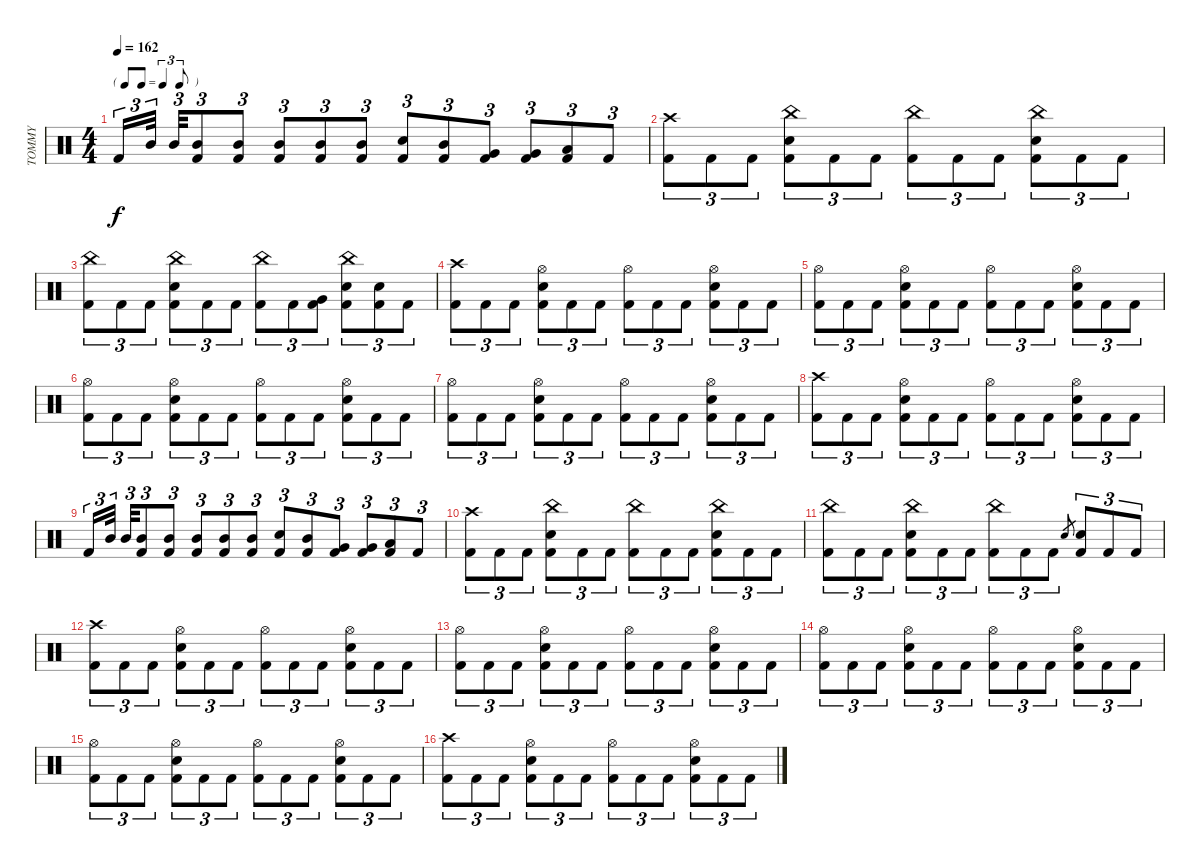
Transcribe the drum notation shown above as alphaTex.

\track ("TOMMY" "TOMMY") {instrument percussion}
\staff {score}
\articulation defaults
\ts (4 4)
\tf triplet8th
\tempo 162
\clef neutral
\ks c "Kick (hit) 2".16{tu (3 2) dy f} "Mid Tom (hit)".32{tu (3 2)} "Mid Tom (hit)".32{tu (3 2)}
("Kick (hit) 2" "Mid Tom (hit)").8{tu (3 2)} ("Kick (hit) 2" "Mid Tom (hit)").8{tu (3 2)} ("Kick (hit) 2" "Mid Tom (hit)").8{tu (3 2)} ("Kick (hit) 2" "Mid Tom (hit)").8{tu (3 2)} ("Kick (hit) 2" "Mid Tom (hit)").8{tu (3 2)} ("Snare (hit) 2" "Kick (hit) 2").8{tu (3 2)} ("Kick (hit) 2" "Mid Tom (hit)").8{tu (3 2)} ("Kick (hit) 2" "Very Low Tom (hit)").8{tu (3 2)} ("Kick (hit) 2" "Very Low Tom (hit)").8{tu (3 2)} ("Kick (hit) 2" "Low Floor Tom (hit)").8{tu (3 2)} "Kick (hit) 2".8{tu (3 2)} |
("Kick (hit) 2" "Crash high (hit)").8{tu (3 2)} "Kick (hit) 2".8{tu (3 2)} "Kick (hit) 2".8{tu (3 2)} ("Snare (hit) 2" "Kick (hit) 2" "China (hit)").8{tu (3 2)} "Kick (hit) 2".8{tu (3 2)} "Kick (hit) 2".8{tu (3 2)} ("Kick (hit) 2" "China (hit)").8{tu (3 2)} "Kick (hit) 2".8{tu (3 2)} "Kick (hit) 2".8{tu (3 2)} ("Snare (hit) 2" "Kick (hit) 2" "China (hit)").8{tu (3 2)} "Kick (hit) 2".8{tu (3 2)} "Kick (hit) 2".8{tu (3 2)} |
("Kick (hit) 2" "China (hit)").8{tu (3 2)} "Kick (hit) 2".8{tu (3 2)} "Kick (hit) 2".8{tu (3 2)} ("Snare (hit) 2" "Kick (hit) 2" "China (hit)").8{tu (3 2)} "Kick (hit) 2".8{tu (3 2)} "Kick (hit) 2".8{tu (3 2)} ("Kick (hit) 2" "China (hit)").8{tu (3 2)} "Kick (hit) 2".8{tu (3 2)} ("Kick (hit) 2" "Very Low Tom (hit)").8{tu (3 2)} ("Snare (hit) 2" "Kick (hit) 2" "China (hit)").8{tu (3 2)} ("Snare (hit) 2" "Kick (hit) 2").8{tu (3 2)} "Kick (hit) 2".8{tu (3 2)} |
("Kick (hit) 2" "Crash high (hit)").8{tu (3 2)} "Kick (hit) 2".8{tu (3 2)} "Kick (hit) 2".8{tu (3 2)} ("Snare (hit) 2" "Kick (hit) 2" "Hi-Hat (open)").8{tu (3 2)} "Kick (hit) 2".8{tu (3 2)} "Kick (hit) 2".8{tu (3 2)} ("Kick (hit) 2" "Hi-Hat (open)").8{tu (3 2)} "Kick (hit) 2".8{tu (3 2)} "Kick (hit) 2".8{tu (3 2)} ("Snare (hit) 2" "Kick (hit) 2" "Hi-Hat (open)").8{tu (3 2)} "Kick (hit) 2".8{tu (3 2)} "Kick (hit) 2".8{tu (3 2)} |
("Kick (hit) 2" "Hi-Hat (open)").8{tu (3 2)} "Kick (hit) 2".8{tu (3 2)} "Kick (hit) 2".8{tu (3 2)} ("Snare (hit) 2" "Kick (hit) 2" "Hi-Hat (open)").8{tu (3 2)} "Kick (hit) 2".8{tu (3 2)} "Kick (hit) 2".8{tu (3 2)} ("Kick (hit) 2" "Hi-Hat (open)").8{tu (3 2)} "Kick (hit) 2".8{tu (3 2)} "Kick (hit) 2".8{tu (3 2)} ("Snare (hit) 2" "Kick (hit) 2" "Hi-Hat (open)").8{tu (3 2)} "Kick (hit) 2".8{tu (3 2)} "Kick (hit) 2".8{tu (3 2)} |
("Kick (hit) 2" "Hi-Hat (open)").8{tu (3 2)} "Kick (hit) 2".8{tu (3 2)} "Kick (hit) 2".8{tu (3 2)} ("Snare (hit) 2" "Kick (hit) 2" "Hi-Hat (open)").8{tu (3 2)} "Kick (hit) 2".8{tu (3 2)} "Kick (hit) 2".8{tu (3 2)} ("Kick (hit) 2" "Hi-Hat (open)").8{tu (3 2)} "Kick (hit) 2".8{tu (3 2)} "Kick (hit) 2".8{tu (3 2)} ("Snare (hit) 2" "Kick (hit) 2" "Hi-Hat (open)").8{tu (3 2)} "Kick (hit) 2".8{tu (3 2)} "Kick (hit) 2".8{tu (3 2)} |
("Kick (hit) 2" "Hi-Hat (open)").8{tu (3 2)} "Kick (hit) 2".8{tu (3 2)} "Kick (hit) 2".8{tu (3 2)} ("Snare (hit) 2" "Kick (hit) 2" "Hi-Hat (open)").8{tu (3 2)} "Kick (hit) 2".8{tu (3 2)} "Kick (hit) 2".8{tu (3 2)} ("Kick (hit) 2" "Hi-Hat (open)").8{tu (3 2)} "Kick (hit) 2".8{tu (3 2)} "Kick (hit) 2".8{tu (3 2)} ("Snare (hit) 2" "Kick (hit) 2" "Hi-Hat (open)").8{tu (3 2)} "Kick (hit) 2".8{tu (3 2)} "Kick (hit) 2".8{tu (3 2)} |
("Kick (hit) 2" "Crash high (hit)").8{tu (3 2)} "Kick (hit) 2".8{tu (3 2)} "Kick (hit) 2".8{tu (3 2)} ("Snare (hit) 2" "Kick (hit) 2" "Hi-Hat (open)").8{tu (3 2)} "Kick (hit) 2".8{tu (3 2)} "Kick (hit) 2".8{tu (3 2)} ("Kick (hit) 2" "Hi-Hat (open)").8{tu (3 2)} "Kick (hit) 2".8{tu (3 2)} "Kick (hit) 2".8{tu (3 2)} ("Snare (hit) 2" "Kick (hit) 2" "Hi-Hat (open)").8{tu (3 2)} "Kick (hit) 2".8{tu (3 2)} "Kick (hit) 2".8{tu (3 2)} |
"Kick (hit) 2".16{tu (3 2)} "Mid Tom (hit)".32{tu (3 2)} "Mid Tom (hit)".32{tu (3 2)} ("Kick (hit) 2" "Mid Tom (hit)").8{tu (3 2)} ("Kick (hit) 2" "Mid Tom (hit)").8{tu (3 2)} ("Kick (hit) 2" "Mid Tom (hit)").8{tu (3 2)} ("Kick (hit) 2" "Mid Tom (hit)").8{tu (3 2)} ("Kick (hit) 2" "Mid Tom (hit)").8{tu (3 2)} ("Snare (hit) 2" "Kick (hit) 2").8{tu (3 2)} ("Kick (hit) 2" "Mid Tom (hit)").8{tu (3 2)} ("Kick (hit) 2" "Very Low Tom (hit)").8{tu (3 2)} ("Kick (hit) 2" "Very Low Tom (hit)").8{tu (3 2)} ("Kick (hit) 2" "Low Floor Tom (hit)").8{tu (3 2)} "Kick (hit) 2".8{tu (3 2)} |
("Kick (hit) 2" "Crash high (hit)").8{tu (3 2)} "Kick (hit) 2".8{tu (3 2)} "Kick (hit) 2".8{tu (3 2)} ("Snare (hit) 2" "Kick (hit) 2" "China (hit)").8{tu (3 2)} "Kick (hit) 2".8{tu (3 2)} "Kick (hit) 2".8{tu (3 2)} ("Kick (hit) 2" "China (hit)").8{tu (3 2)} "Kick (hit) 2".8{tu (3 2)} "Kick (hit) 2".8{tu (3 2)} ("Snare (hit) 2" "Kick (hit) 2" "China (hit)").8{tu (3 2)} "Kick (hit) 2".8{tu (3 2)} "Kick (hit) 2".8{tu (3 2)} |
("Kick (hit) 2" "China (hit)").8{tu (3 2)} "Kick (hit) 2".8{tu (3 2)} "Kick (hit) 2".8{tu (3 2)} ("Snare (hit) 2" "Kick (hit) 2" "China (hit)").8{tu (3 2)} "Kick (hit) 2".8{tu (3 2)} "Kick (hit) 2".8{tu (3 2)} ("Kick (hit) 2" "China (hit)").8{tu (3 2)} "Kick (hit) 2".8{tu (3 2)} "Kick (hit) 2".8{tu (3 2)} "Snare (hit) 2".8{gr} ("Snare (hit) 2" "Kick (hit) 2").8{tu (3 2)} "Kick (hit) 2".8{tu (3 2)} "Kick (hit) 2".8{tu (3 2)} |
("Kick (hit) 2" "Crash high (hit)").8{tu (3 2)} "Kick (hit) 2".8{tu (3 2)} "Kick (hit) 2".8{tu (3 2)} ("Snare (hit) 2" "Kick (hit) 2" "Hi-Hat (open)").8{tu (3 2)} "Kick (hit) 2".8{tu (3 2)} "Kick (hit) 2".8{tu (3 2)} ("Kick (hit) 2" "Hi-Hat (open)").8{tu (3 2)} "Kick (hit) 2".8{tu (3 2)} "Kick (hit) 2".8{tu (3 2)} ("Snare (hit) 2" "Kick (hit) 2" "Hi-Hat (open)").8{tu (3 2)} "Kick (hit) 2".8{tu (3 2)} "Kick (hit) 2".8{tu (3 2)} |
("Kick (hit) 2" "Hi-Hat (open)").8{tu (3 2)} "Kick (hit) 2".8{tu (3 2)} "Kick (hit) 2".8{tu (3 2)} ("Snare (hit) 2" "Kick (hit) 2" "Hi-Hat (open)").8{tu (3 2)} "Kick (hit) 2".8{tu (3 2)} "Kick (hit) 2".8{tu (3 2)} ("Kick (hit) 2" "Hi-Hat (open)").8{tu (3 2)} "Kick (hit) 2".8{tu (3 2)} "Kick (hit) 2".8{tu (3 2)} ("Snare (hit) 2" "Kick (hit) 2" "Hi-Hat (open)").8{tu (3 2)} "Kick (hit) 2".8{tu (3 2)} "Kick (hit) 2".8{tu (3 2)} |
("Kick (hit) 2" "Hi-Hat (open)").8{tu (3 2)} "Kick (hit) 2".8{tu (3 2)} "Kick (hit) 2".8{tu (3 2)} ("Snare (hit) 2" "Kick (hit) 2" "Hi-Hat (open)").8{tu (3 2)} "Kick (hit) 2".8{tu (3 2)} "Kick (hit) 2".8{tu (3 2)} ("Kick (hit) 2" "Hi-Hat (open)").8{tu (3 2)} "Kick (hit) 2".8{tu (3 2)} "Kick (hit) 2".8{tu (3 2)} ("Snare (hit) 2" "Kick (hit) 2" "Hi-Hat (open)").8{tu (3 2)} "Kick (hit) 2".8{tu (3 2)} "Kick (hit) 2".8{tu (3 2)} |
("Kick (hit) 2" "Hi-Hat (open)").8{tu (3 2)} "Kick (hit) 2".8{tu (3 2)} "Kick (hit) 2".8{tu (3 2)} ("Snare (hit) 2" "Kick (hit) 2" "Hi-Hat (open)").8{tu (3 2)} "Kick (hit) 2".8{tu (3 2)} "Kick (hit) 2".8{tu (3 2)} ("Kick (hit) 2" "Hi-Hat (open)").8{tu (3 2)} "Kick (hit) 2".8{tu (3 2)} "Kick (hit) 2".8{tu (3 2)} ("Snare (hit) 2" "Kick (hit) 2" "Hi-Hat (open)").8{tu (3 2)} "Kick (hit) 2".8{tu (3 2)} "Kick (hit) 2".8{tu (3 2)} |
("Kick (hit) 2" "Crash high (hit)").8{tu (3 2)} "Kick (hit) 2".8{tu (3 2)} "Kick (hit) 2".8{tu (3 2)} ("Snare (hit) 2" "Kick (hit) 2" "Hi-Hat (open)").8{tu (3 2)} "Kick (hit) 2".8{tu (3 2)} "Kick (hit) 2".8{tu (3 2)} ("Kick (hit) 2" "Hi-Hat (open)").8{tu (3 2)} "Kick (hit) 2".8{tu (3 2)} "Kick (hit) 2".8{tu (3 2)} ("Snare (hit) 2" "Kick (hit) 2" "Hi-Hat (open)").8{tu (3 2)} "Kick (hit) 2".8{tu (3 2)} "Kick (hit) 2".8{tu (3 2)}
